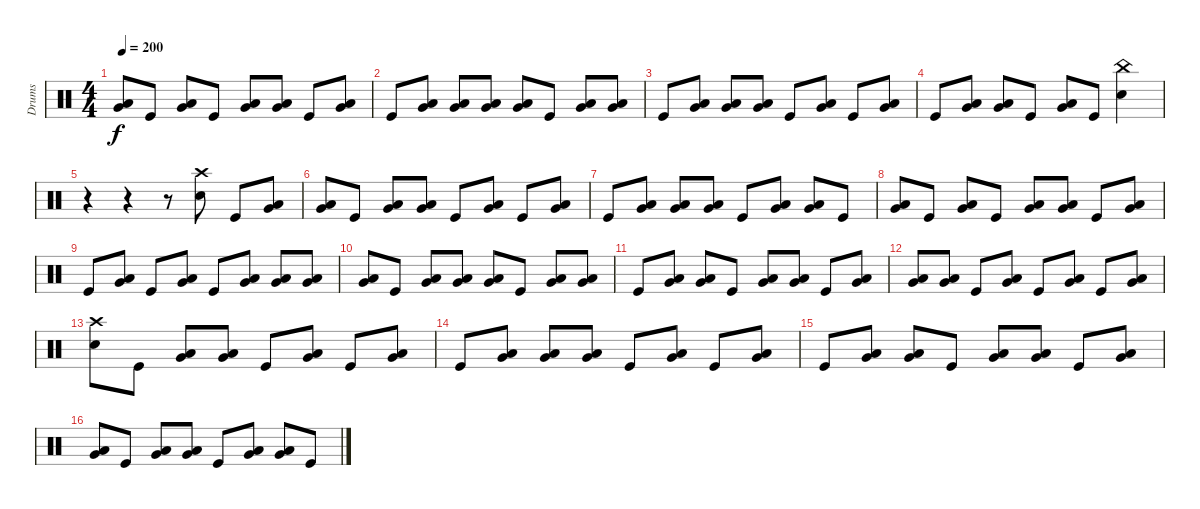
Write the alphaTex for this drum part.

\track ("Drums" "Drums") {instrument percussion}
\staff {score}
\articulation defaults
\ts (4 4)
\tempo 200
\clef neutral
\ks c
("Low Tom (hit)" "Very Low Tom (hit)").8{dy f} "Kick (hit)".8 ("Low Tom (hit)" "Very Low Tom (hit)").8 "Kick (hit)".8 ("Low Tom (hit)" "Very Low Tom (hit)").8 ("Low Tom (hit)" "Very Low Tom (hit)").8 "Kick (hit)".8 ("Low Tom (hit)" "Very Low Tom (hit)").8 |
"Kick (hit)".8 ("Low Tom (hit)" "Very Low Tom (hit)").8 ("Low Tom (hit)" "Very Low Tom (hit)").8 ("Low Tom (hit)" "Very Low Tom (hit)").8 ("Low Tom (hit)" "Very Low Tom (hit)").8 "Kick (hit)".8 ("Low Tom (hit)" "Very Low Tom (hit)").8 ("Low Tom (hit)" "Very Low Tom (hit)").8 |
"Kick (hit)".8 ("Low Tom (hit)" "Very Low Tom (hit)").8 ("Low Tom (hit)" "Very Low Tom (hit)").8 ("Low Tom (hit)" "Very Low Tom (hit)").8 "Kick (hit)".8 ("Low Tom (hit)" "Very Low Tom (hit)").8 "Kick (hit)".8 ("Low Tom (hit)" "Very Low Tom (hit)").8 |
"Kick (hit)".8 ("Low Tom (hit)" "Very Low Tom (hit)").8 ("Low Tom (hit)" "Very Low Tom (hit)").8 "Kick (hit)".8 ("Low Tom (hit)" "Very Low Tom (hit)").8 "Kick (hit)".8 ("China (hit)" "Snare (hit) 2").4 |
r.4 r.4 r.8 ("Crash high (hit)" "Snare (hit) 2").8 "Kick (hit)".8 ("Low Tom (hit)" "Very Low Tom (hit)").8 |
("Low Tom (hit)" "Very Low Tom (hit)").8 "Kick (hit)".8 ("Low Tom (hit)" "Very Low Tom (hit)").8 ("Low Tom (hit)" "Very Low Tom (hit)").8 "Kick (hit)".8 ("Low Tom (hit)" "Very Low Tom (hit)").8 "Kick (hit)".8 ("Low Tom (hit)" "Very Low Tom (hit)").8 |
"Kick (hit)".8 ("Low Tom (hit)" "Very Low Tom (hit)").8 ("Low Tom (hit)" "Very Low Tom (hit)").8 ("Low Tom (hit)" "Very Low Tom (hit)").8 "Kick (hit)".8 ("Low Tom (hit)" "Very Low Tom (hit)").8 ("Low Tom (hit)" "Very Low Tom (hit)").8 "Kick (hit)".8 |
("Low Tom (hit)" "Very Low Tom (hit)").8 "Kick (hit)".8 ("Low Tom (hit)" "Very Low Tom (hit)").8 "Kick (hit)".8 ("Low Tom (hit)" "Very Low Tom (hit)").8 ("Low Tom (hit)" "Very Low Tom (hit)").8 "Kick (hit)".8 ("Low Tom (hit)" "Very Low Tom (hit)").8 |
"Kick (hit)".8 ("Low Tom (hit)" "Very Low Tom (hit)").8 "Kick (hit)".8 ("Low Tom (hit)" "Very Low Tom (hit)").8 "Kick (hit)".8 ("Low Tom (hit)" "Very Low Tom (hit)").8 ("Low Tom (hit)" "Very Low Tom (hit)").8 ("Low Tom (hit)" "Very Low Tom (hit)").8 |
("Low Tom (hit)" "Very Low Tom (hit)").8 "Kick (hit)".8 ("Low Tom (hit)" "Very Low Tom (hit)").8 ("Low Tom (hit)" "Very Low Tom (hit)").8 ("Low Tom (hit)" "Very Low Tom (hit)").8 "Kick (hit)".8 ("Low Tom (hit)" "Very Low Tom (hit)").8 ("Low Tom (hit)" "Very Low Tom (hit)").8 |
"Kick (hit)".8 ("Low Tom (hit)" "Very Low Tom (hit)").8 ("Low Tom (hit)" "Very Low Tom (hit)").8 "Kick (hit)".8 ("Low Tom (hit)" "Very Low Tom (hit)").8 ("Low Tom (hit)" "Very Low Tom (hit)").8 "Kick (hit)".8 ("Low Tom (hit)" "Very Low Tom (hit)").8 |
("Low Tom (hit)" "Very Low Tom (hit)").8 ("Low Tom (hit)" "Very Low Tom (hit)").8 "Kick (hit)".8 ("Low Tom (hit)" "Very Low Tom (hit)").8 "Kick (hit)".8 ("Low Tom (hit)" "Very Low Tom (hit)").8 "Kick (hit)".8 ("Low Tom (hit)" "Very Low Tom (hit)").8 |
("Crash high (hit)" "Snare (hit) 2").8 "Kick (hit)".8 ("Low Tom (hit)" "Very Low Tom (hit)").8 ("Low Tom (hit)" "Very Low Tom (hit)").8 "Kick (hit)".8 ("Low Tom (hit)" "Very Low Tom (hit)").8 "Kick (hit)".8 ("Low Tom (hit)" "Very Low Tom (hit)").8 |
"Kick (hit)".8 ("Low Tom (hit)" "Very Low Tom (hit)").8 ("Low Tom (hit)" "Very Low Tom (hit)").8 ("Low Tom (hit)" "Very Low Tom (hit)").8 "Kick (hit)".8 ("Low Tom (hit)" "Very Low Tom (hit)").8 "Kick (hit)".8 ("Low Tom (hit)" "Very Low Tom (hit)").8 |
"Kick (hit)".8 ("Low Tom (hit)" "Very Low Tom (hit)").8 ("Low Tom (hit)" "Very Low Tom (hit)").8 "Kick (hit)".8 ("Low Tom (hit)" "Very Low Tom (hit)").8 ("Low Tom (hit)" "Very Low Tom (hit)").8 "Kick (hit)".8 ("Low Tom (hit)" "Very Low Tom (hit)").8 |
("Low Tom (hit)" "Very Low Tom (hit)").8 "Kick (hit)".8 ("Low Tom (hit)" "Very Low Tom (hit)").8 ("Low Tom (hit)" "Very Low Tom (hit)").8 "Kick (hit)".8 ("Low Tom (hit)" "Very Low Tom (hit)").8 ("Low Tom (hit)" "Very Low Tom (hit)").8 "Kick (hit)".8
